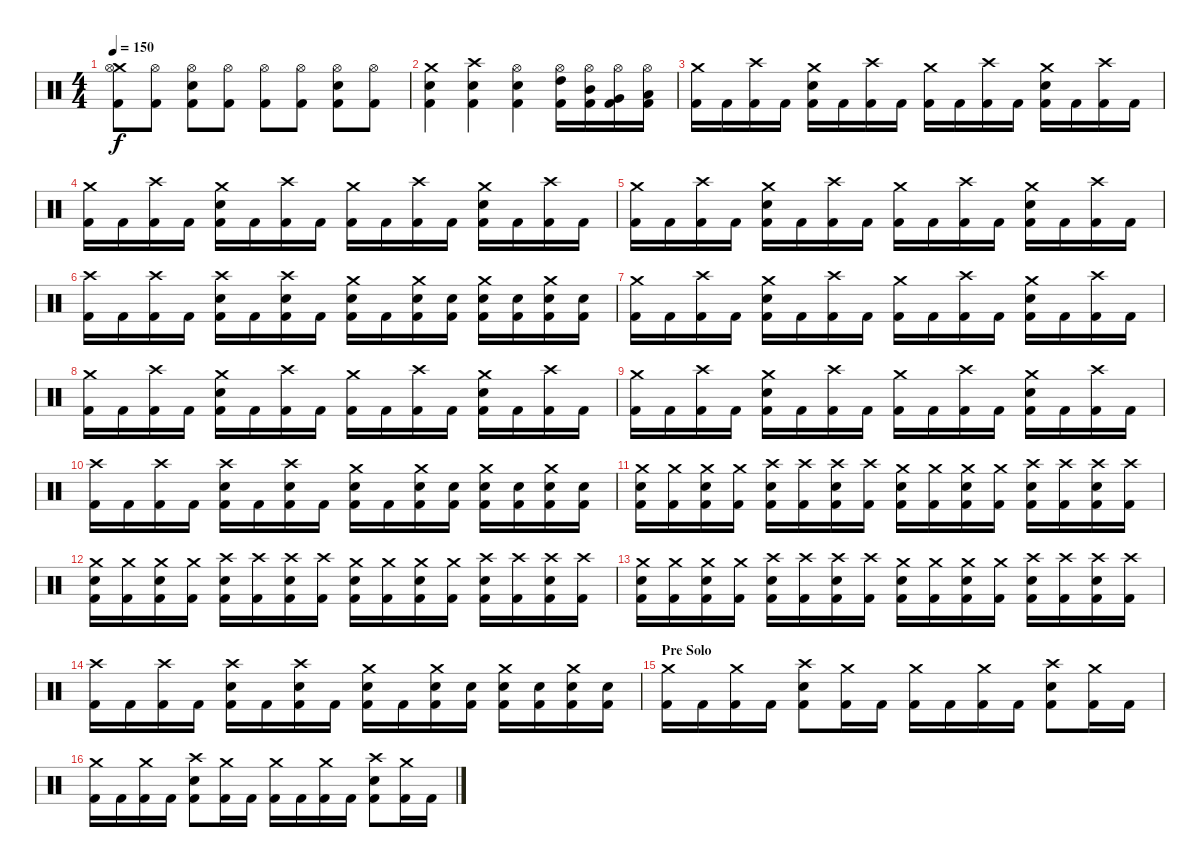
\track "" {instrument percussion}
\staff {score}
\articulation defaults
\ts (4 4)
\tempo 150
\clef neutral
\ks c
("Crash medium (hit)" "Hi-Hat (open)" "Kick (hit) 2").8{dy f} ("Hi-Hat (open)" "Kick (hit) 2").8 ("Hi-Hat (open)" "Electric Snare (hit)" "Kick (hit) 2").8 ("Hi-Hat (open)" "Kick (hit) 2").8 ("Hi-Hat (open)" "Kick (hit) 2").8 ("Hi-Hat (open)" "Kick (hit) 2").8 ("Hi-Hat (open)" "Electric Snare (hit)" "Kick (hit) 2").8 ("Hi-Hat (open)" "Kick (hit) 2").8 |
("Crash medium (hit)" "Electric Snare (hit)" "Kick (hit) 2").4 ("Crash high (hit)" "Electric Snare (hit)" "Kick (hit) 2").4 ("Hi-Hat (open)" "Electric Snare (hit)" "Kick (hit) 2").4 ("Hi-Hat (open)" "High Tom (hit)" "Kick (hit) 2").16 ("Hi-Hat (open)" "Mid Tom (hit)" "Kick (hit) 2").16 ("Hi-Hat (open)" "Very Low Tom (hit)" "Kick (hit) 2").16 ("Hi-Hat (open)" "Low Floor Tom (hit)" "Kick (hit) 2").16 |
("Crash medium (hit)" "Kick (hit) 2").16 "Kick (hit) 2".16 ("Crash high (hit)" "Kick (hit) 2").16 "Kick (hit) 2".16 ("Crash medium (hit)" "Electric Snare (hit)" "Kick (hit) 2").16 "Kick (hit) 2".16 ("Crash high (hit)" "Kick (hit) 2").16 "Kick (hit) 2".16 ("Crash medium (hit)" "Kick (hit) 2").16 "Kick (hit) 2".16 ("Crash high (hit)" "Kick (hit) 2").16 "Kick (hit) 2".16 ("Crash medium (hit)" "Electric Snare (hit)" "Kick (hit) 2").16 "Kick (hit) 2".16 ("Crash high (hit)" "Kick (hit) 2").16 "Kick (hit) 2".16 |
("Crash medium (hit)" "Kick (hit) 2").16 "Kick (hit) 2".16 ("Crash high (hit)" "Kick (hit) 2").16 "Kick (hit) 2".16 ("Crash medium (hit)" "Electric Snare (hit)" "Kick (hit) 2").16 "Kick (hit) 2".16 ("Crash high (hit)" "Kick (hit) 2").16 "Kick (hit) 2".16 ("Crash medium (hit)" "Kick (hit) 2").16 "Kick (hit) 2".16 ("Crash high (hit)" "Kick (hit) 2").16 "Kick (hit) 2".16 ("Crash medium (hit)" "Electric Snare (hit)" "Kick (hit) 2").16 "Kick (hit) 2".16 ("Crash high (hit)" "Kick (hit) 2").16 "Kick (hit) 2".16 |
("Crash medium (hit)" "Kick (hit) 2").16 "Kick (hit) 2".16 ("Crash high (hit)" "Kick (hit) 2").16 "Kick (hit) 2".16 ("Crash medium (hit)" "Electric Snare (hit)" "Kick (hit) 2").16 "Kick (hit) 2".16 ("Crash high (hit)" "Kick (hit) 2").16 "Kick (hit) 2".16 ("Crash medium (hit)" "Kick (hit) 2").16 "Kick (hit) 2".16 ("Crash high (hit)" "Kick (hit) 2").16 "Kick (hit) 2".16 ("Crash medium (hit)" "Electric Snare (hit)" "Kick (hit) 2").16 "Kick (hit) 2".16 ("Crash high (hit)" "Kick (hit) 2").16 "Kick (hit) 2".16 |
("Crash high (hit)" "Kick (hit) 2").16 "Kick (hit) 2".16 ("Crash high (hit)" "Kick (hit) 2").16 "Kick (hit) 2".16 ("Crash high (hit)" "Electric Snare (hit)" "Kick (hit) 2").16 "Kick (hit) 2".16 ("Crash high (hit)" "Electric Snare (hit)" "Kick (hit) 2").16 "Kick (hit) 2".16 ("Crash medium (hit)" "Electric Snare (hit)" "Kick (hit) 2").16 "Kick (hit) 2".16 ("Crash medium (hit)" "Electric Snare (hit)" "Kick (hit) 2").16 ("Electric Snare (hit)" "Kick (hit) 2").16 ("Crash medium (hit)" "Electric Snare (hit)" "Kick (hit) 2").16 ("Electric Snare (hit)" "Kick (hit) 2").16 ("Crash medium (hit)" "Electric Snare (hit)" "Kick (hit) 2").16 ("Electric Snare (hit)" "Kick (hit) 2").16 |
("Crash medium (hit)" "Kick (hit) 2").16 "Kick (hit) 2".16 ("Crash high (hit)" "Kick (hit) 2").16 "Kick (hit) 2".16 ("Crash medium (hit)" "Electric Snare (hit)" "Kick (hit) 2").16 "Kick (hit) 2".16 ("Crash high (hit)" "Kick (hit) 2").16 "Kick (hit) 2".16 ("Crash medium (hit)" "Kick (hit) 2").16 "Kick (hit) 2".16 ("Crash high (hit)" "Kick (hit) 2").16 "Kick (hit) 2".16 ("Crash medium (hit)" "Electric Snare (hit)" "Kick (hit) 2").16 "Kick (hit) 2".16 ("Crash high (hit)" "Kick (hit) 2").16 "Kick (hit) 2".16 |
("Crash medium (hit)" "Kick (hit) 2").16 "Kick (hit) 2".16 ("Crash high (hit)" "Kick (hit) 2").16 "Kick (hit) 2".16 ("Crash medium (hit)" "Electric Snare (hit)" "Kick (hit) 2").16 "Kick (hit) 2".16 ("Crash high (hit)" "Kick (hit) 2").16 "Kick (hit) 2".16 ("Crash medium (hit)" "Kick (hit) 2").16 "Kick (hit) 2".16 ("Crash high (hit)" "Kick (hit) 2").16 "Kick (hit) 2".16 ("Crash medium (hit)" "Electric Snare (hit)" "Kick (hit) 2").16 "Kick (hit) 2".16 ("Crash high (hit)" "Kick (hit) 2").16 "Kick (hit) 2".16 |
("Crash medium (hit)" "Kick (hit) 2").16 "Kick (hit) 2".16 ("Crash high (hit)" "Kick (hit) 2").16 "Kick (hit) 2".16 ("Crash medium (hit)" "Electric Snare (hit)" "Kick (hit) 2").16 "Kick (hit) 2".16 ("Crash high (hit)" "Kick (hit) 2").16 "Kick (hit) 2".16 ("Crash medium (hit)" "Kick (hit) 2").16 "Kick (hit) 2".16 ("Crash high (hit)" "Kick (hit) 2").16 "Kick (hit) 2".16 ("Crash medium (hit)" "Electric Snare (hit)" "Kick (hit) 2").16 "Kick (hit) 2".16 ("Crash high (hit)" "Kick (hit) 2").16 "Kick (hit) 2".16 |
("Crash high (hit)" "Kick (hit) 2").16 "Kick (hit) 2".16 ("Crash high (hit)" "Kick (hit) 2").16 "Kick (hit) 2".16 ("Crash high (hit)" "Electric Snare (hit)" "Kick (hit) 2").16 "Kick (hit) 2".16 ("Crash high (hit)" "Electric Snare (hit)" "Kick (hit) 2").16 "Kick (hit) 2".16 ("Crash medium (hit)" "Electric Snare (hit)" "Kick (hit) 2").16 "Kick (hit) 2".16 ("Crash medium (hit)" "Electric Snare (hit)" "Kick (hit) 2").16 ("Electric Snare (hit)" "Kick (hit) 2").16 ("Crash medium (hit)" "Electric Snare (hit)" "Kick (hit) 2").16 ("Electric Snare (hit)" "Kick (hit) 2").16 ("Crash medium (hit)" "Electric Snare (hit)" "Kick (hit) 2").16 ("Electric Snare (hit)" "Kick (hit) 2").16 |
("Crash medium (hit)" "Electric Snare (hit)" "Kick (hit) 2").16 ("Crash medium (hit)" "Kick (hit) 2").16 ("Crash medium (hit)" "Electric Snare (hit)" "Kick (hit) 2").16 ("Crash medium (hit)" "Kick (hit) 2").16 ("Crash high (hit)" "Electric Snare (hit)" "Kick (hit) 2").16 ("Crash high (hit)" "Kick (hit) 2").16 ("Crash high (hit)" "Electric Snare (hit)" "Kick (hit) 2").16 ("Crash high (hit)" "Kick (hit) 2").16 ("Crash medium (hit)" "Electric Snare (hit)" "Kick (hit) 2").16 ("Crash medium (hit)" "Kick (hit) 2").16 ("Crash medium (hit)" "Electric Snare (hit)" "Kick (hit) 2").16 ("Crash medium (hit)" "Kick (hit) 2").16 ("Crash high (hit)" "Electric Snare (hit)" "Kick (hit) 2").16 ("Crash high (hit)" "Kick (hit) 2").16 ("Crash high (hit)" "Electric Snare (hit)" "Kick (hit) 2").16 ("Crash high (hit)" "Kick (hit) 2").16 |
("Crash medium (hit)" "Electric Snare (hit)" "Kick (hit) 2").16 ("Crash medium (hit)" "Kick (hit) 2").16 ("Crash medium (hit)" "Electric Snare (hit)" "Kick (hit) 2").16 ("Crash medium (hit)" "Kick (hit) 2").16 ("Crash high (hit)" "Electric Snare (hit)" "Kick (hit) 2").16 ("Crash high (hit)" "Kick (hit) 2").16 ("Crash high (hit)" "Electric Snare (hit)" "Kick (hit) 2").16 ("Crash high (hit)" "Kick (hit) 2").16 ("Crash medium (hit)" "Electric Snare (hit)" "Kick (hit) 2").16 ("Crash medium (hit)" "Kick (hit) 2").16 ("Crash medium (hit)" "Electric Snare (hit)" "Kick (hit) 2").16 ("Crash medium (hit)" "Kick (hit) 2").16 ("Crash high (hit)" "Electric Snare (hit)" "Kick (hit) 2").16 ("Crash high (hit)" "Kick (hit) 2").16 ("Crash high (hit)" "Electric Snare (hit)" "Kick (hit) 2").16 ("Crash high (hit)" "Kick (hit) 2").16 |
("Crash medium (hit)" "Electric Snare (hit)" "Kick (hit) 2").16 ("Crash medium (hit)" "Kick (hit) 2").16 ("Crash medium (hit)" "Electric Snare (hit)" "Kick (hit) 2").16 ("Crash medium (hit)" "Kick (hit) 2").16 ("Crash high (hit)" "Electric Snare (hit)" "Kick (hit) 2").16 ("Crash high (hit)" "Kick (hit) 2").16 ("Crash high (hit)" "Electric Snare (hit)" "Kick (hit) 2").16 ("Crash high (hit)" "Kick (hit) 2").16 ("Crash medium (hit)" "Electric Snare (hit)" "Kick (hit) 2").16 ("Crash medium (hit)" "Kick (hit) 2").16 ("Crash medium (hit)" "Electric Snare (hit)" "Kick (hit) 2").16 ("Crash medium (hit)" "Kick (hit) 2").16 ("Crash high (hit)" "Electric Snare (hit)" "Kick (hit) 2").16 ("Crash high (hit)" "Kick (hit) 2").16 ("Crash high (hit)" "Electric Snare (hit)" "Kick (hit) 2").16 ("Crash high (hit)" "Kick (hit) 2").16 |
("Crash high (hit)" "Kick (hit) 2").16 "Kick (hit) 2".16 ("Crash high (hit)" "Kick (hit) 2").16 "Kick (hit) 2".16 ("Crash high (hit)" "Electric Snare (hit)" "Kick (hit) 2").16 "Kick (hit) 2".16 ("Crash high (hit)" "Electric Snare (hit)" "Kick (hit) 2").16 "Kick (hit) 2".16 ("Crash medium (hit)" "Electric Snare (hit)" "Kick (hit) 2").16 "Kick (hit) 2".16 ("Crash medium (hit)" "Electric Snare (hit)" "Kick (hit) 2").16 ("Electric Snare (hit)" "Kick (hit) 2").16 ("Crash medium (hit)" "Electric Snare (hit)" "Kick (hit) 2").16 ("Electric Snare (hit)" "Kick (hit) 2").16 ("Crash medium (hit)" "Electric Snare (hit)" "Kick (hit) 2").16 ("Electric Snare (hit)" "Kick (hit) 2").16 |
\section ("" "Pre Solo")
("Crash medium (hit)" "Kick (hit) 2").16 "Kick (hit) 2".16 ("Crash medium (hit)" "Kick (hit) 2").16 "Kick (hit) 2".16 ("Crash high (hit)" "Electric Snare (hit)" "Kick (hit) 2").8 ("Crash medium (hit)" "Kick (hit) 2").16 "Kick (hit) 2".16 ("Crash medium (hit)" "Kick (hit) 2").16 "Kick (hit) 2".16 ("Crash medium (hit)" "Kick (hit) 2").16 "Kick (hit) 2".16 ("Crash high (hit)" "Electric Snare (hit)" "Kick (hit) 2").8 ("Crash medium (hit)" "Kick (hit) 2").16 "Kick (hit) 2".16 |
("Crash medium (hit)" "Kick (hit) 2").16 "Kick (hit) 2".16 ("Crash medium (hit)" "Kick (hit) 2").16 "Kick (hit) 2".16 ("Crash high (hit)" "Electric Snare (hit)" "Kick (hit) 2").8 ("Crash medium (hit)" "Kick (hit) 2").16 "Kick (hit) 2".16 ("Crash medium (hit)" "Kick (hit) 2").16 "Kick (hit) 2".16 ("Crash medium (hit)" "Kick (hit) 2").16 "Kick (hit) 2".16 ("Crash high (hit)" "Electric Snare (hit)" "Kick (hit) 2").8 ("Crash medium (hit)" "Kick (hit) 2").16 "Kick (hit) 2".16
